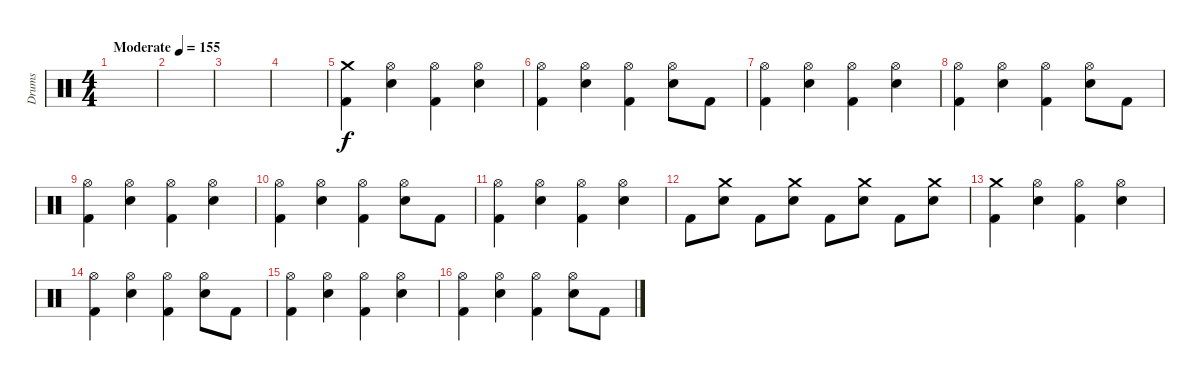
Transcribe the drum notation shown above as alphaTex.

\track ("Drums" "Drums") {instrument percussion}
\staff {score}
\articulation defaults
\ts (4 4)
\tempo (155 "Moderate")
\clef neutral
\ks c
|
|
|
|
("Crash medium (hit)" "Kick (hit) 2").4 ("Hi-Hat (open)" "Snare (hit) 2").4 ("Hi-Hat (open)" "Kick (hit) 2").4 ("Hi-Hat (open)" "Snare (hit) 2").4 |
("Hi-Hat (open)" "Kick (hit) 2").4 ("Hi-Hat (open)" "Snare (hit) 2").4 ("Hi-Hat (open)" "Kick (hit) 2").4 ("Hi-Hat (open)" "Snare (hit) 2").8 "Kick (hit) 2".8 |
("Hi-Hat (open)" "Kick (hit) 2").4 ("Hi-Hat (open)" "Snare (hit) 2").4 ("Hi-Hat (open)" "Kick (hit) 2").4 ("Hi-Hat (open)" "Snare (hit) 2").4 |
("Hi-Hat (open)" "Kick (hit) 2").4 ("Hi-Hat (open)" "Snare (hit) 2").4 ("Hi-Hat (open)" "Kick (hit) 2").4 ("Hi-Hat (open)" "Snare (hit) 2").8 "Kick (hit) 2".8 |
("Hi-Hat (open)" "Kick (hit) 2").4 ("Hi-Hat (open)" "Snare (hit) 2").4 ("Hi-Hat (open)" "Kick (hit) 2").4 ("Hi-Hat (open)" "Snare (hit) 2").4 |
("Hi-Hat (open)" "Kick (hit) 2").4 ("Hi-Hat (open)" "Snare (hit) 2").4 ("Hi-Hat (open)" "Kick (hit) 2").4 ("Hi-Hat (open)" "Snare (hit) 2").8 "Kick (hit) 2".8 |
("Hi-Hat (open)" "Kick (hit) 2").4 ("Hi-Hat (open)" "Snare (hit) 2").4 ("Hi-Hat (open)" "Kick (hit) 2").4 ("Hi-Hat (open)" "Snare (hit) 2").4 |
"Kick (hit) 2".8 ("Crash medium (hit)" "Snare (hit) 2").8 "Kick (hit) 2".8 ("Crash medium (hit)" "Snare (hit) 2").8 "Kick (hit) 2".8 ("Crash medium (hit)" "Snare (hit) 2").8 "Kick (hit) 2".8 ("Crash medium (hit)" "Snare (hit) 2").8 |
("Crash medium (hit)" "Kick (hit) 2").4 ("Hi-Hat (open)" "Snare (hit) 2").4 ("Hi-Hat (open)" "Kick (hit) 2").4 ("Hi-Hat (open)" "Snare (hit) 2").4 |
("Hi-Hat (open)" "Kick (hit) 2").4 ("Hi-Hat (open)" "Snare (hit) 2").4 ("Hi-Hat (open)" "Kick (hit) 2").4 ("Hi-Hat (open)" "Snare (hit) 2").8 "Kick (hit) 2".8 |
("Hi-Hat (open)" "Kick (hit) 2").4 ("Hi-Hat (open)" "Snare (hit) 2").4 ("Hi-Hat (open)" "Kick (hit) 2").4 ("Hi-Hat (open)" "Snare (hit) 2").4 |
("Hi-Hat (open)" "Kick (hit) 2").4 ("Hi-Hat (open)" "Snare (hit) 2").4 ("Hi-Hat (open)" "Kick (hit) 2").4 ("Hi-Hat (open)" "Snare (hit) 2").8 "Kick (hit) 2".8
